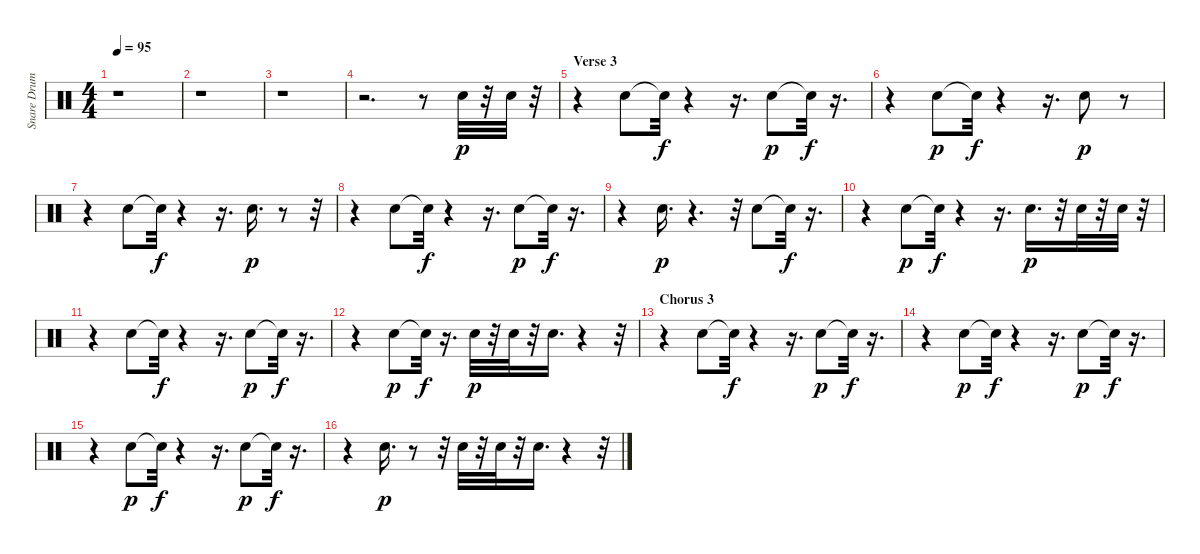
\track ("Snare Drum" "Snare Drum") {instrument percussion}
\staff {score}
\articulation defaults
\ts (4 4)
\tempo 95
\clef neutral
\ks c
r.1{dy p} |
r.1 |
r.1 |
r.2{d} r.8 "Snare (hit) 2".32 r.32 "Snare (hit) 2".32 r.32 |
\section ("" "Verse 3")
r.4 "Snare (hit) 2".8 "Snare (hit)"{t}.32{dy f} r.4 r.16{d} "Snare (hit) 2".8{dy p} "Snare (hit)"{t}.32{dy f} r.16{d} |
r.4 "Snare (hit) 2".8{dy p} "Snare (hit)"{t}.32{dy f} r.4 r.16{d} "Snare (hit) 2".8{dy p} r.8 |
r.4 "Snare (hit) 2".8 "Snare (hit)"{t}.32{dy f} r.4 r.16{d} "Snare (hit) 2".16{d dy p} r.8 r.32 |
r.4 "Snare (hit) 2".8 "Snare (hit)"{t}.32{dy f} r.4 r.16{d} "Snare (hit) 2".8{dy p} "Snare (hit)"{t}.32{dy f} r.16{d} |
r.4 "Snare (hit) 2".16{d dy p} r.4{d} r.32 "Snare (hit) 2".8 "Snare (hit)"{t}.32{dy f} r.16{d} |
r.4 "Snare (hit) 2".8{dy p} "Snare (hit)"{t}.32{dy f} r.4 r.16{d} "Snare (hit) 2".16{d dy p} r.32 "Snare (hit) 2".32 r.32 "Snare (hit) 2".32 r.32 |
r.4 "Snare (hit) 2".8 "Snare (hit)"{t}.32{dy f} r.4 r.16{d} "Snare (hit) 2".8{dy p} "Snare (hit)"{t}.32{dy f} r.16{d} |
r.4 "Snare (hit) 2".8{dy p} "Snare (hit)"{t}.32{dy f} r.16{d} "Snare (hit) 2".32{dy p} r.32 "Snare (hit) 2".32 r.32 "Snare (hit) 2".16{d} r.4 r.32 |
\section ("" "Chorus 3")
r.4 "Snare (hit) 2".8 "Snare (hit)"{t}.32{dy f} r.4 r.16{d} "Snare (hit) 2".8{dy p} "Snare (hit)"{t}.32{dy f} r.16{d} |
r.4 "Snare (hit) 2".8{dy p} "Snare (hit)"{t}.32{dy f} r.4 r.16{d} "Snare (hit) 2".8{dy p} "Snare (hit)"{t}.32{dy f} r.16{d} |
r.4 "Snare (hit) 2".8{dy p} "Snare (hit)"{t}.32{dy f} r.4 r.16{d} "Snare (hit) 2".8{dy p} "Snare (hit)"{t}.32{dy f} r.16{d} |
r.4 "Snare (hit) 2".16{d dy p} r.8 r.32 "Snare (hit) 2".32 r.32 "Snare (hit) 2".32 r.32 "Snare (hit) 2".16{d} r.4 r.32
